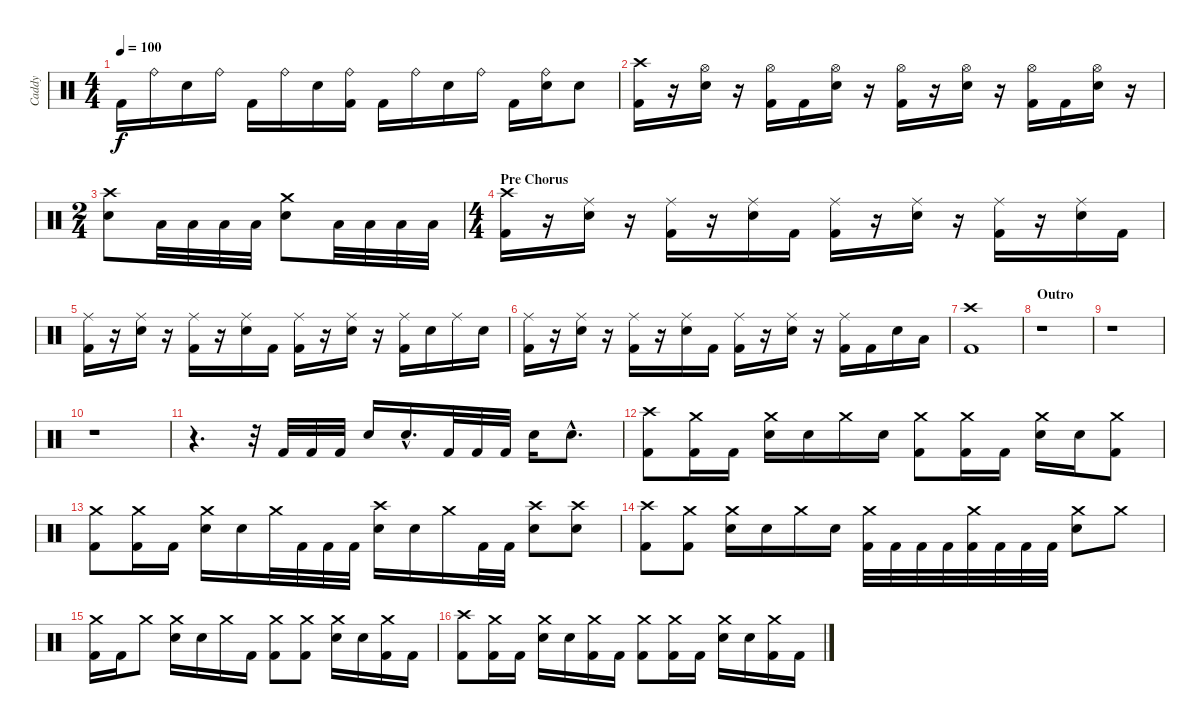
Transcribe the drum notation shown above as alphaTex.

\track ("Caddy" "Caddy") {instrument percussion}
\staff {score}
\articulation defaults
\ts (4 4)
\tempo 100
\clef neutral
\ks c "Kick (hit) 2".16{dy f} "Ride (bell)".16 "Electric Snare (hit)".16 "Ride (bell)".16 "Kick (hit) 2".16 "Ride (bell)".16 "Electric Snare (hit)".16
("Ride (bell)" "Kick (hit) 2").16 "Kick (hit) 2".16 "Ride (bell)".16 "Electric Snare (hit)".16 "Ride (bell)".16 "Kick (hit) 2".16 ("Ride (bell)" "Electric Snare (hit)").16 "Electric Snare (hit)".8 |
("Crash high (hit)" "Kick (hit) 2").16 r.16 ("Hi-Hat (open)" "Electric Snare (hit)").16 r.16 ("Hi-Hat (open)" "Kick (hit) 2").16 "Kick (hit) 2".16 ("Hi-Hat (open)" "Electric Snare (hit)").16 r.16 ("Hi-Hat (open)" "Kick (hit) 2").16 r.16 ("Hi-Hat (open)" "Electric Snare (hit)").16 r.16 ("Hi-Hat (open)" "Kick (hit) 2").16 "Kick (hit) 2".16 ("Hi-Hat (open)" "Electric Snare (hit)").16 r.16 |
\ts (2 4)
("Crash high (hit)" "Electric Snare (hit)").8 "Low Floor Tom (hit)".32 "Low Floor Tom (hit)".32 "Low Floor Tom (hit)".32 "Low Floor Tom (hit)".32 ("Crash medium (hit)" "Electric Snare (hit)").8 "Low Floor Tom (hit)".32 "Low Floor Tom (hit)".32 "Low Floor Tom (hit)".32 "Low Floor Tom (hit)".32 |
\ts (4 4)
\section ("" "Pre Chorus")
("Crash high (hit)" "Kick (hit) 2").16 r.16 ("Ride (middle)" "Electric Snare (hit)").16 r.16 ("Ride (middle)" "Kick (hit) 2").16 r.16 ("Ride (middle)" "Electric Snare (hit)").16 "Kick (hit) 2".16 ("Ride (middle)" "Kick (hit) 2").16 r.16 ("Ride (middle)" "Electric Snare (hit)").16 r.16 ("Ride (middle)" "Kick (hit) 2").16 r.16 ("Ride (middle)" "Electric Snare (hit)").16 "Kick (hit) 2".16 |
("Ride (middle)" "Kick (hit) 2").16 r.16 ("Ride (middle)" "Electric Snare (hit)").16 r.16 ("Ride (middle)" "Kick (hit) 2").16 r.16 ("Ride (middle)" "Electric Snare (hit)").16 "Kick (hit) 2".16 ("Ride (middle)" "Kick (hit) 2").16 r.16 ("Ride (middle)" "Electric Snare (hit)").16 r.16 ("Ride (middle)" "Kick (hit) 2").16 "Electric Snare (hit)".16 "Ride (middle)".16 "Electric Snare (hit)".16 |
("Ride (middle)" "Kick (hit) 2").16 r.16 ("Ride (middle)" "Electric Snare (hit)").16 r.16 ("Ride (middle)" "Kick (hit) 2").16 r.16 ("Ride (middle)" "Electric Snare (hit)").16 "Kick (hit) 2".16 ("Ride (middle)" "Kick (hit) 2").16 r.16 ("Ride (middle)" "Electric Snare (hit)").16 r.16 ("Ride (middle)" "Kick (hit) 2").16 "Kick (hit) 2".16 "Electric Snare (hit)".16 "Low Tom (hit)".16 |
("Crash high (hit)" "Kick (hit) 2").1 |
\section ("" "Outro")
r.1 |
r.1 |
r.1 |
r.4{d} r.32 "Kick (hit) 2".32 "Kick (hit) 2".32 "Kick (hit) 2".32 "Electric Snare (hit)".16 "Electric Snare (hit)"{hac}.16{d} "Kick (hit) 2".32 "Kick (hit) 2".32 "Kick (hit) 2".32 "Electric Snare (hit)".16 "Electric Snare (hit)"{hac}.8{d} |
("Crash high (hit)" "Kick (hit) 2").8 ("Crash medium (hit)" "Kick (hit) 2").16 "Kick (hit) 2".16 ("Crash medium (hit)" "Electric Snare (hit)").16 "Electric Snare (hit)".16 "Crash medium (hit)".16 "Electric Snare (hit)".16 ("Crash medium (hit)" "Kick (hit) 2").8 ("Crash medium (hit)" "Kick (hit) 2").16 "Kick (hit) 2".16 ("Crash medium (hit)" "Electric Snare (hit)").16 "Electric Snare (hit)".16 ("Crash medium (hit)" "Kick (hit) 2").8 |
("Crash medium (hit)" "Kick (hit) 2").8 ("Crash medium (hit)" "Kick (hit) 2").16 "Kick (hit) 2".16 ("Crash medium (hit)" "Electric Snare (hit)").16 "Electric Snare (hit)".16 "Crash medium (hit)".32 "Kick (hit) 2".32 "Kick (hit) 2".32 "Kick (hit) 2".32 ("Crash high (hit)" "Electric Snare (hit)").16 "Electric Snare (hit)".16 "Crash medium (hit)".16 "Kick (hit) 2".32 "Kick (hit) 2".32 ("Crash high (hit)" "Electric Snare (hit)").8 ("Crash high (hit)" "Electric Snare (hit)").8 |
("Crash high (hit)" "Kick (hit) 2").8 ("Crash medium (hit)" "Kick (hit) 2").8 ("Crash medium (hit)" "Electric Snare (hit)").16 "Electric Snare (hit)".16 "Crash medium (hit)".16 "Electric Snare (hit)".16 ("Crash medium (hit)" "Kick (hit) 2").32 "Kick (hit) 2".32 "Kick (hit) 2".32 "Kick (hit) 2".32 ("Crash medium (hit)" "Kick (hit) 2").32 "Kick (hit) 2".32 "Kick (hit) 2".32 "Kick (hit) 2".32 ("Crash medium (hit)" "Electric Snare (hit)").8 "Crash medium (hit)".8 |
("Crash medium (hit)" "Kick (hit) 2").16 "Kick (hit) 2".16 "Crash medium (hit)".8 ("Crash medium (hit)" "Electric Snare (hit)").16 "Electric Snare (hit)".16 "Crash medium (hit)".16 "Kick (hit) 2".16 ("Crash medium (hit)" "Kick (hit) 2").8 ("Crash medium (hit)" "Kick (hit) 2").8 ("Crash medium (hit)" "Electric Snare (hit)").16 "Electric Snare (hit)".16 ("Crash medium (hit)" "Kick (hit) 2").16 "Kick (hit) 2".16 |
("Crash high (hit)" "Kick (hit) 2").8 ("Crash medium (hit)" "Kick (hit) 2").16 "Kick (hit) 2".16 ("Crash medium (hit)" "Electric Snare (hit)").16 "Electric Snare (hit)".16 ("Crash medium (hit)" "Kick (hit) 2").16 "Kick (hit) 2".16 ("Crash medium (hit)" "Kick (hit) 2").8 ("Crash medium (hit)" "Kick (hit) 2").16 "Kick (hit) 2".16 ("Crash medium (hit)" "Electric Snare (hit)").16 "Electric Snare (hit)".16 ("Crash medium (hit)" "Kick (hit) 2").16 "Kick (hit) 2".16
